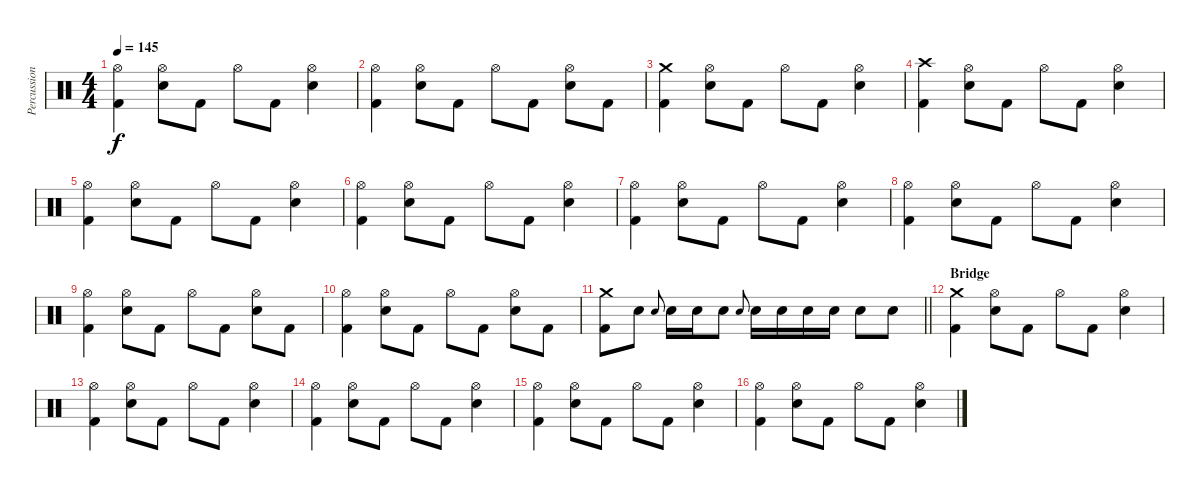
\track ("Percussion" "Percussion") {instrument percussion}
\staff {score}
\articulation defaults
\ts (4 4)
\tempo 145
\clef neutral
\ks c
("Kick (hit) 2" "Hi-Hat (open)").4{dy f} ("Electric Snare (hit)" "Hi-Hat (open)").8 "Kick (hit) 2".8 "Hi-Hat (open)".8 "Kick (hit) 2".8 ("Electric Snare (hit)" "Hi-Hat (open)").4 |
("Kick (hit) 2" "Hi-Hat (open)").4 ("Electric Snare (hit)" "Hi-Hat (open)").8 "Kick (hit) 2".8 "Hi-Hat (open)".8 "Kick (hit) 2".8 ("Electric Snare (hit)" "Hi-Hat (open)").8 "Kick (hit) 2".8 |
("Kick (hit) 2" "Crash medium (hit)").4 ("Electric Snare (hit)" "Hi-Hat (open)").8 "Kick (hit) 2".8 "Hi-Hat (open)".8 "Kick (hit) 2".8 ("Electric Snare (hit)" "Hi-Hat (open)").4 |
("Kick (hit) 2" "Crash high (hit)").4 ("Electric Snare (hit)" "Hi-Hat (open)").8 "Kick (hit) 2".8 "Hi-Hat (open)".8 "Kick (hit) 2".8 ("Electric Snare (hit)" "Hi-Hat (open)").4 |
("Kick (hit) 2" "Hi-Hat (open)").4 ("Electric Snare (hit)" "Hi-Hat (open)").8 "Kick (hit) 2".8 "Hi-Hat (open)".8 "Kick (hit) 2".8 ("Electric Snare (hit)" "Hi-Hat (open)").4 |
("Kick (hit) 2" "Hi-Hat (open)").4 ("Electric Snare (hit)" "Hi-Hat (open)").8 "Kick (hit) 2".8 "Hi-Hat (open)".8 "Kick (hit) 2".8 ("Electric Snare (hit)" "Hi-Hat (open)").4 |
("Kick (hit) 2" "Hi-Hat (open)").4 ("Electric Snare (hit)" "Hi-Hat (open)").8 "Kick (hit) 2".8 "Hi-Hat (open)".8 "Kick (hit) 2".8 ("Electric Snare (hit)" "Hi-Hat (open)").4 |
("Kick (hit) 2" "Hi-Hat (open)").4 ("Electric Snare (hit)" "Hi-Hat (open)").8 "Kick (hit) 2".8 "Hi-Hat (open)".8 "Kick (hit) 2".8 ("Electric Snare (hit)" "Hi-Hat (open)").4 |
("Kick (hit) 2" "Hi-Hat (open)").4 ("Electric Snare (hit)" "Hi-Hat (open)").8 "Kick (hit) 2".8 "Hi-Hat (open)".8 "Kick (hit) 2".8 ("Electric Snare (hit)" "Hi-Hat (open)").8 "Kick (hit) 2".8 |
("Kick (hit) 2" "Hi-Hat (open)").4 ("Electric Snare (hit)" "Hi-Hat (open)").8 "Kick (hit) 2".8 "Hi-Hat (open)".8 "Kick (hit) 2".8 ("Electric Snare (hit)" "Hi-Hat (open)").8 "Kick (hit) 2".8 |
\barLineRight lightlight
("Crash medium (hit)" "Kick (hit) 2").8 "Electric Snare (hit)".8 "Electric Snare (hit)".8{gr onbeat} "Electric Snare (hit)".16 "Electric Snare (hit)".16 "Electric Snare (hit)".8 "Electric Snare (hit)".8{gr onbeat} "Electric Snare (hit)".16 "Electric Snare (hit)".16 "Electric Snare (hit)".16 "Electric Snare (hit)".16 "Electric Snare (hit)".8 "Electric Snare (hit)".8 |
\section ("" "Bridge")
("Kick (hit) 2" "Crash medium (hit)").4 ("Electric Snare (hit)" "Hi-Hat (open)").8 "Kick (hit) 2".8 "Hi-Hat (open)".8 "Kick (hit) 2".8 ("Electric Snare (hit)" "Hi-Hat (open)").4 |
("Kick (hit) 2" "Hi-Hat (open)").4 ("Electric Snare (hit)" "Hi-Hat (open)").8 "Kick (hit) 2".8 "Hi-Hat (open)".8 "Kick (hit) 2".8 ("Electric Snare (hit)" "Hi-Hat (open)").4 |
("Kick (hit) 2" "Hi-Hat (open)").4 ("Electric Snare (hit)" "Hi-Hat (open)").8 "Kick (hit) 2".8 "Hi-Hat (open)".8 "Kick (hit) 2".8 ("Electric Snare (hit)" "Hi-Hat (open)").4 |
("Kick (hit) 2" "Hi-Hat (open)").4 ("Electric Snare (hit)" "Hi-Hat (open)").8 "Kick (hit) 2".8 "Hi-Hat (open)".8 "Kick (hit) 2".8 ("Electric Snare (hit)" "Hi-Hat (open)").4 |
("Kick (hit) 2" "Hi-Hat (open)").4 ("Electric Snare (hit)" "Hi-Hat (open)").8 "Kick (hit) 2".8 "Hi-Hat (open)".8 "Kick (hit) 2".8 ("Electric Snare (hit)" "Hi-Hat (open)").4
